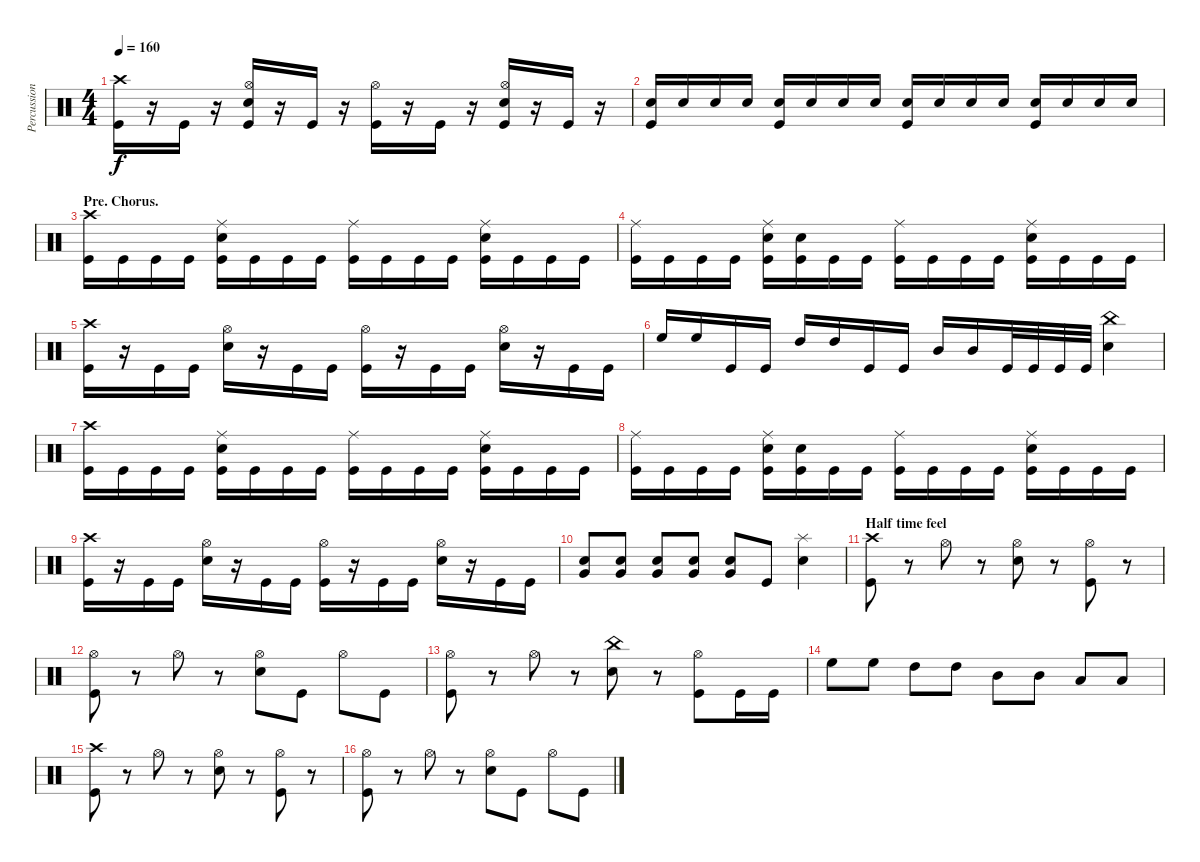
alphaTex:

\track ("Percussion" "Percussion") {instrument percussion}
\staff {score}
\articulation defaults
\ts (4 4)
\tempo 160
\clef neutral
\ks c
("Crash high (hit)" "Kick (hit)").16{dy f} r.16 "Kick (hit)".16 r.16 ("Hi-Hat (open)" "Electric Snare (hit)" "Kick (hit)").16 r.16 "Kick (hit)".16 r.16 ("Hi-Hat (open)" "Kick (hit)").16 r.16 "Kick (hit)".16 r.16 ("Hi-Hat (open)" "Electric Snare (hit)" "Kick (hit)").16 r.16 "Kick (hit)".16 r.16 |
("Electric Snare (hit)" "Kick (hit)").16 "Electric Snare (hit)".16 "Electric Snare (hit)".16 "Electric Snare (hit)".16 ("Electric Snare (hit)" "Kick (hit)").16 "Electric Snare (hit)".16 "Electric Snare (hit)".16 "Electric Snare (hit)".16 ("Electric Snare (hit)" "Kick (hit)").16 "Electric Snare (hit)".16 "Electric Snare (hit)".16 "Electric Snare (hit)".16 ("Electric Snare (hit)" "Kick (hit)").16 "Electric Snare (hit)".16 "Electric Snare (hit)".16 "Electric Snare (hit)".16 |
\section ("" "Pre. Chorus.")
("Crash high (hit)" "Kick (hit)").16 "Kick (hit)".16 "Kick (hit)".16 "Kick (hit)".16 ("Ride (middle)" "Electric Snare (hit)" "Kick (hit)").16 "Kick (hit)".16 "Kick (hit)".16 "Kick (hit)".16 ("Ride (middle)" "Kick (hit)").16 "Kick (hit)".16 "Kick (hit)".16 "Kick (hit)".16 ("Ride (middle)" "Electric Snare (hit)" "Kick (hit)").16 "Kick (hit)".16 "Kick (hit)".16 "Kick (hit)".16 |
("Ride (middle)" "Kick (hit)").16 "Kick (hit)".16 "Kick (hit)".16 "Kick (hit)".16 ("Ride (middle)" "Electric Snare (hit)" "Kick (hit)").16 ("Electric Snare (hit)" "Kick (hit)").16 "Kick (hit)".16 "Kick (hit)".16 ("Ride (middle)" "Kick (hit)").16 "Kick (hit)".16 "Kick (hit)".16 "Kick (hit)".16 ("Ride (middle)" "Electric Snare (hit)" "Kick (hit)").16 "Kick (hit)".16 "Kick (hit)".16 "Kick (hit)".16 |
("Crash high (hit)" "Kick (hit)").16 r.16 "Kick (hit)".16 "Kick (hit)".16 ("Hi-Hat (open)" "Electric Snare (hit)").16 r.16 "Kick (hit)".16 "Kick (hit)".16 ("Hi-Hat (open)" "Kick (hit)").16 r.16 "Kick (hit)".16 "Kick (hit)".16 ("Hi-Hat (open)" "Electric Snare (hit)").16 r.16 "Kick (hit)".16 "Kick (hit)".16 |
"High Floor Tom (hit)".16 "High Floor Tom (hit)".16 "Kick (hit)".16 "Kick (hit)".16 "High Tom (hit)".16 "High Tom (hit)".16 "Kick (hit)".16 "Kick (hit)".16 "Mid Tom (hit)".16 "Mid Tom (hit)".16 "Kick (hit)".32 "Kick (hit)".32 "Kick (hit)".32 "Kick (hit)".32 ("China (hit)" "Electric Snare (hit)").4 |
("Crash high (hit)" "Kick (hit)").16 "Kick (hit)".16 "Kick (hit)".16 "Kick (hit)".16 ("Ride (middle)" "Electric Snare (hit)" "Kick (hit)").16 "Kick (hit)".16 "Kick (hit)".16 "Kick (hit)".16 ("Ride (middle)" "Kick (hit)").16 "Kick (hit)".16 "Kick (hit)".16 "Kick (hit)".16 ("Ride (middle)" "Electric Snare (hit)" "Kick (hit)").16 "Kick (hit)".16 "Kick (hit)".16 "Kick (hit)".16 |
("Ride (middle)" "Kick (hit)").16 "Kick (hit)".16 "Kick (hit)".16 "Kick (hit)".16 ("Ride (middle)" "Electric Snare (hit)" "Kick (hit)").16 ("Electric Snare (hit)" "Kick (hit)").16 "Kick (hit)".16 "Kick (hit)".16 ("Ride (middle)" "Kick (hit)").16 "Kick (hit)".16 "Kick (hit)".16 "Kick (hit)".16 ("Ride (middle)" "Electric Snare (hit)" "Kick (hit)").16 "Kick (hit)".16 "Kick (hit)".16 "Kick (hit)".16 |
("Crash high (hit)" "Kick (hit)").16 r.16 "Kick (hit)".16 "Kick (hit)".16 ("Hi-Hat (open)" "Electric Snare (hit)").16 r.16 "Kick (hit)".16 "Kick (hit)".16 ("Hi-Hat (open)" "Kick (hit)").16 r.16 "Kick (hit)".16 "Kick (hit)".16 ("Hi-Hat (open)" "Electric Snare (hit)").16 r.16 "Kick (hit)".16 "Kick (hit)".16 |
("Very Low Tom (hit)" "Electric Snare (hit)").8 ("Very Low Tom (hit)" "Electric Snare (hit)").8 ("Very Low Tom (hit)" "Electric Snare (hit)").8 ("Very Low Tom (hit)" "Electric Snare (hit)").8 ("Very Low Tom (hit)" "Electric Snare (hit)").8 "Kick (hit)".8 ("Splash (hit)" "Electric Snare (hit)").4 |
\section ("" "Half time feel")
("Crash high (hit)" "Kick (hit)").8 r.8 "Hi-Hat (open)".8 r.8 ("Hi-Hat (open)" "Electric Snare (hit)").8 r.8 ("Hi-Hat (open)" "Kick (hit)").8 r.8 |
("Hi-Hat (open)" "Kick (hit)").8 r.8 "Hi-Hat (open)".8 r.8 ("Hi-Hat (open)" "Electric Snare (hit)").8 "Kick (hit)".8 "Hi-Hat (open)".8 "Kick (hit)".8 |
("Hi-Hat (open)" "Kick (hit)").8 r.8 "Hi-Hat (open)".8 r.8 ("China (hit)" "Electric Snare (hit)").8 r.8 ("Hi-Hat (open)" "Kick (hit)").8 "Kick (hit)".16 "Kick (hit)".16 |
"High Floor Tom (hit)".8 "High Floor Tom (hit)".8 "High Tom (hit)".8 "High Tom (hit)".8 "Mid Tom (hit)".8 "Mid Tom (hit)".8 "Low Tom (hit)".8 "Low Tom (hit)".8 |
("Crash high (hit)" "Kick (hit)").8 r.8 "Hi-Hat (open)".8 r.8 ("Hi-Hat (open)" "Electric Snare (hit)").8 r.8 ("Hi-Hat (open)" "Kick (hit)").8 r.8 |
("Hi-Hat (open)" "Kick (hit)").8 r.8 "Hi-Hat (open)".8 r.8 ("Hi-Hat (open)" "Electric Snare (hit)").8 "Kick (hit)".8 "Hi-Hat (open)".8 "Kick (hit)".8
